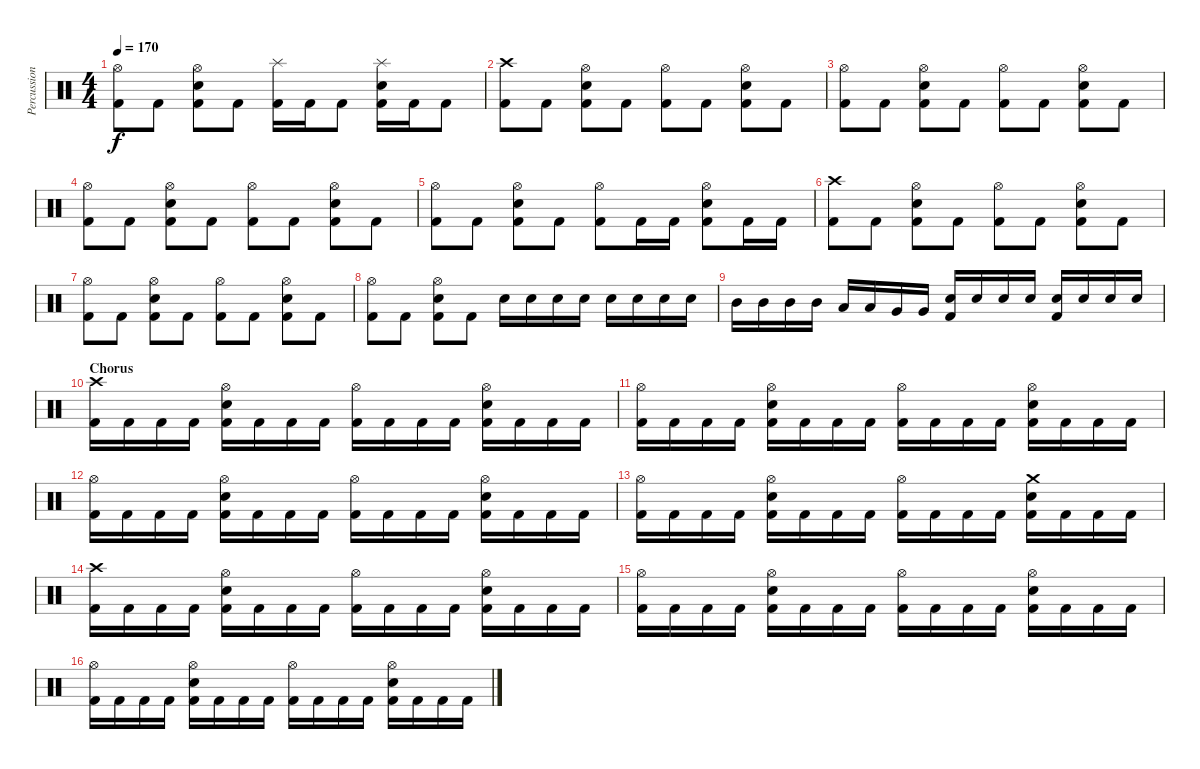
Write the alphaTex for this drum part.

\track ("Percussion" "Percussion") {instrument percussion}
\staff {score}
\articulation defaults
\ts (4 4)
\tempo 170
\clef neutral
\ks c
("Hi-Hat (open)" "Kick (hit) 2").8{dy f} "Kick (hit) 2".8 ("Hi-Hat (open)" "Electric Snare (hit)" "Kick (hit) 2").8 "Kick (hit) 2".8 ("Splash (hit)" "Kick (hit) 2").16 "Kick (hit) 2".16 "Kick (hit) 2".8 ("Splash (hit)" "Electric Snare (hit)" "Kick (hit) 2").16 "Kick (hit) 2".16 "Kick (hit) 2".8 |
("Crash high (hit)" "Kick (hit) 2").8 "Kick (hit) 2".8 ("Hi-Hat (open)" "Electric Snare (hit)" "Kick (hit) 2").8 "Kick (hit) 2".8 ("Hi-Hat (open)" "Kick (hit) 2").8 "Kick (hit) 2".8 ("Hi-Hat (open)" "Electric Snare (hit)" "Kick (hit) 2").8 "Kick (hit) 2".8 |
("Hi-Hat (open)" "Kick (hit) 2").8 "Kick (hit) 2".8 ("Hi-Hat (open)" "Electric Snare (hit)" "Kick (hit) 2").8 "Kick (hit) 2".8 ("Hi-Hat (open)" "Kick (hit) 2").8 "Kick (hit) 2".8 ("Hi-Hat (open)" "Electric Snare (hit)" "Kick (hit) 2").8 "Kick (hit) 2".8 |
("Hi-Hat (open)" "Kick (hit) 2").8 "Kick (hit) 2".8 ("Hi-Hat (open)" "Electric Snare (hit)" "Kick (hit) 2").8 "Kick (hit) 2".8 ("Hi-Hat (open)" "Kick (hit) 2").8 "Kick (hit) 2".8 ("Hi-Hat (open)" "Electric Snare (hit)" "Kick (hit) 2").8 "Kick (hit) 2".8 |
("Hi-Hat (open)" "Kick (hit) 2").8 "Kick (hit) 2".8 ("Hi-Hat (open)" "Electric Snare (hit)" "Kick (hit) 2").8 "Kick (hit) 2".8 ("Hi-Hat (open)" "Kick (hit) 2").8 "Kick (hit) 2".16 "Kick (hit) 2".16 ("Hi-Hat (open)" "Electric Snare (hit)" "Kick (hit) 2").8 "Kick (hit) 2".16 "Kick (hit) 2".16 |
("Crash high (hit)" "Kick (hit) 2").8 "Kick (hit) 2".8 ("Hi-Hat (open)" "Electric Snare (hit)" "Kick (hit) 2").8 "Kick (hit) 2".8 ("Hi-Hat (open)" "Kick (hit) 2").8 "Kick (hit) 2".8 ("Hi-Hat (open)" "Electric Snare (hit)" "Kick (hit) 2").8 "Kick (hit) 2".8 |
("Hi-Hat (open)" "Kick (hit) 2").8 "Kick (hit) 2".8 ("Hi-Hat (open)" "Electric Snare (hit)" "Kick (hit) 2").8 "Kick (hit) 2".8 ("Hi-Hat (open)" "Kick (hit) 2").8 "Kick (hit) 2".8 ("Hi-Hat (open)" "Electric Snare (hit)" "Kick (hit) 2").8 "Kick (hit) 2".8 |
("Hi-Hat (open)" "Kick (hit) 2").8 "Kick (hit) 2".8 ("Hi-Hat (open)" "Electric Snare (hit)" "Kick (hit) 2").8 "Kick (hit) 2".8 "Electric Snare (hit)".16 "Electric Snare (hit)".16 "Electric Snare (hit)".16 "Electric Snare (hit)".16 "Electric Snare (hit)".16 "Electric Snare (hit)".16 "Electric Snare (hit)".16 "Electric Snare (hit)".16 |
"Mid Tom (hit)".16 "Mid Tom (hit)".16 "Mid Tom (hit)".16 "Mid Tom (hit)".16 "Low Tom (hit)".16 "Low Tom (hit)".16 "Very Low Tom (hit)".16 "Very Low Tom (hit)".16 ("Electric Snare (hit)" "Kick (hit) 2").16 "Electric Snare (hit)".16 "Electric Snare (hit)".16 "Electric Snare (hit)".16 ("Electric Snare (hit)" "Kick (hit) 2").16 "Electric Snare (hit)".16 "Electric Snare (hit)".16 "Electric Snare (hit)".16 |
\section ("" "Chorus")
("Crash high (hit)" "Kick (hit) 2").16 "Kick (hit) 2".16 "Kick (hit) 2".16 "Kick (hit) 2".16 ("Hi-Hat (open)" "Electric Snare (hit)" "Kick (hit) 2").16 "Kick (hit) 2".16 "Kick (hit) 2".16 "Kick (hit) 2".16 ("Hi-Hat (open)" "Kick (hit) 2").16 "Kick (hit) 2".16 "Kick (hit) 2".16 "Kick (hit) 2".16 ("Hi-Hat (open)" "Electric Snare (hit)" "Kick (hit) 2").16 "Kick (hit) 2".16 "Kick (hit) 2".16 "Kick (hit) 2".16 |
("Hi-Hat (open)" "Kick (hit) 2").16 "Kick (hit) 2".16 "Kick (hit) 2".16 "Kick (hit) 2".16 ("Hi-Hat (open)" "Electric Snare (hit)" "Kick (hit) 2").16 "Kick (hit) 2".16 "Kick (hit) 2".16 "Kick (hit) 2".16 ("Hi-Hat (open)" "Kick (hit) 2").16 "Kick (hit) 2".16 "Kick (hit) 2".16 "Kick (hit) 2".16 ("Hi-Hat (open)" "Electric Snare (hit)" "Kick (hit) 2").16 "Kick (hit) 2".16 "Kick (hit) 2".16 "Kick (hit) 2".16 |
("Hi-Hat (open)" "Kick (hit) 2").16 "Kick (hit) 2".16 "Kick (hit) 2".16 "Kick (hit) 2".16 ("Hi-Hat (open)" "Electric Snare (hit)" "Kick (hit) 2").16 "Kick (hit) 2".16 "Kick (hit) 2".16 "Kick (hit) 2".16 ("Hi-Hat (open)" "Kick (hit) 2").16 "Kick (hit) 2".16 "Kick (hit) 2".16 "Kick (hit) 2".16 ("Hi-Hat (open)" "Electric Snare (hit)" "Kick (hit) 2").16 "Kick (hit) 2".16 "Kick (hit) 2".16 "Kick (hit) 2".16 |
("Hi-Hat (open)" "Kick (hit) 2").16 "Kick (hit) 2".16 "Kick (hit) 2".16 "Kick (hit) 2".16 ("Hi-Hat (open)" "Electric Snare (hit)" "Kick (hit) 2").16 "Kick (hit) 2".16 "Kick (hit) 2".16 "Kick (hit) 2".16 ("Hi-Hat (open)" "Kick (hit) 2").16 "Kick (hit) 2".16 "Kick (hit) 2".16 "Kick (hit) 2".16 ("Crash medium (hit)" "Electric Snare (hit)" "Kick (hit) 2").16 "Kick (hit) 2".16 "Kick (hit) 2".16 "Kick (hit) 2".16 |
("Crash high (hit)" "Kick (hit) 2").16 "Kick (hit) 2".16 "Kick (hit) 2".16 "Kick (hit) 2".16 ("Hi-Hat (open)" "Electric Snare (hit)" "Kick (hit) 2").16 "Kick (hit) 2".16 "Kick (hit) 2".16 "Kick (hit) 2".16 ("Hi-Hat (open)" "Kick (hit) 2").16 "Kick (hit) 2".16 "Kick (hit) 2".16 "Kick (hit) 2".16 ("Hi-Hat (open)" "Electric Snare (hit)" "Kick (hit) 2").16 "Kick (hit) 2".16 "Kick (hit) 2".16 "Kick (hit) 2".16 |
("Hi-Hat (open)" "Kick (hit) 2").16 "Kick (hit) 2".16 "Kick (hit) 2".16 "Kick (hit) 2".16 ("Hi-Hat (open)" "Electric Snare (hit)" "Kick (hit) 2").16 "Kick (hit) 2".16 "Kick (hit) 2".16 "Kick (hit) 2".16 ("Hi-Hat (open)" "Kick (hit) 2").16 "Kick (hit) 2".16 "Kick (hit) 2".16 "Kick (hit) 2".16 ("Hi-Hat (open)" "Electric Snare (hit)" "Kick (hit) 2").16 "Kick (hit) 2".16 "Kick (hit) 2".16 "Kick (hit) 2".16 |
("Hi-Hat (open)" "Kick (hit) 2").16 "Kick (hit) 2".16 "Kick (hit) 2".16 "Kick (hit) 2".16 ("Hi-Hat (open)" "Electric Snare (hit)" "Kick (hit) 2").16 "Kick (hit) 2".16 "Kick (hit) 2".16 "Kick (hit) 2".16 ("Hi-Hat (open)" "Kick (hit) 2").16 "Kick (hit) 2".16 "Kick (hit) 2".16 "Kick (hit) 2".16 ("Hi-Hat (open)" "Electric Snare (hit)" "Kick (hit) 2").16 "Kick (hit) 2".16 "Kick (hit) 2".16 "Kick (hit) 2".16
